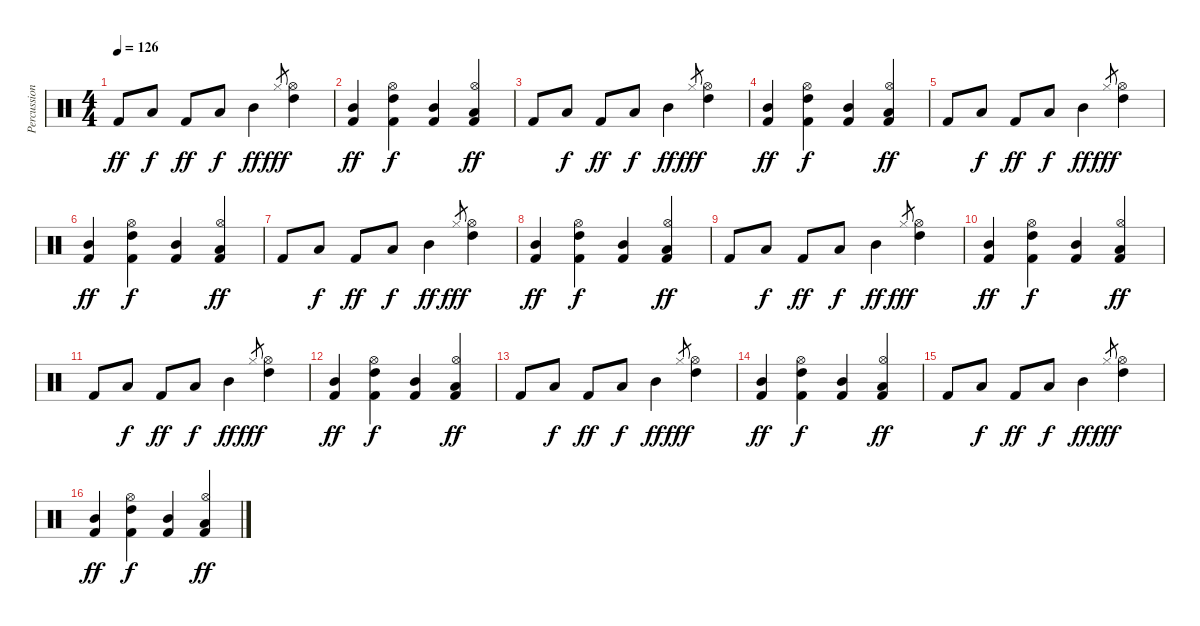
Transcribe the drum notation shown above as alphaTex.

\track ("Percussion" "Percussion") {instrument percussion}
\staff {score}
\articulation defaults
\ts (4 4)
\tempo 126
\clef neutral
\ks c "Kick (hit) 2".8{dy ff} "Low Floor Tom (hit)".8{dy f} "Kick (hit) 2".8{dy ff} "Low Floor Tom (hit)".8{dy f} "Mid Tom (hit)".4{dy ff} "Hi-Hat (closed)".8{gr dy fff}
("High Tom (hit)" "Hi-Hat (open)").4 |
("Kick (hit) 2" "Mid Tom (hit)").4{dy ff balance 7} ("Kick (hit) 2" "High Tom (hit)" "Hi-Hat (open)").4{dy f} ("Kick (hit) 2" "Mid Tom (hit)").4 ("Kick (hit) 2" "Low Tom (hit)" "Hi-Hat (open)").4{dy ff} |
"Kick (hit) 2".8{balance 10} "Low Floor Tom (hit)".8{dy f} "Kick (hit) 2".8{dy ff} "Low Floor Tom (hit)".8{dy f} "Mid Tom (hit)".4{dy ff} "Hi-Hat (closed)".8{gr dy fff} ("High Tom (hit)" "Hi-Hat (open)").4 |
("Kick (hit) 2" "Mid Tom (hit)").4{dy ff} ("Kick (hit) 2" "High Tom (hit)" "Hi-Hat (open)").4{dy f} ("Kick (hit) 2" "Mid Tom (hit)").4 ("Kick (hit) 2" "Low Tom (hit)" "Hi-Hat (open)").4{dy ff} |
"Kick (hit) 2".8 "Low Floor Tom (hit)".8{dy f} "Kick (hit) 2".8{dy ff} "Low Floor Tom (hit)".8{dy f} "Mid Tom (hit)".4{dy ff} "Hi-Hat (closed)".8{gr dy fff} ("High Tom (hit)" "Hi-Hat (open)").4 |
("Kick (hit) 2" "Mid Tom (hit)").4{dy ff} ("Kick (hit) 2" "High Tom (hit)" "Hi-Hat (open)").4{dy f} ("Kick (hit) 2" "Mid Tom (hit)").4 ("Kick (hit) 2" "Low Tom (hit)" "Hi-Hat (open)").4{dy ff} |
"Kick (hit) 2".8 "Low Floor Tom (hit)".8{dy f} "Kick (hit) 2".8{dy ff} "Low Floor Tom (hit)".8{dy f} "Mid Tom (hit)".4{dy ff} "Hi-Hat (closed)".8{gr dy fff} ("High Tom (hit)" "Hi-Hat (open)").4 |
("Kick (hit) 2" "Mid Tom (hit)").4{dy ff} ("Kick (hit) 2" "High Tom (hit)" "Hi-Hat (open)").4{dy f} ("Kick (hit) 2" "Mid Tom (hit)").4 ("Kick (hit) 2" "Low Tom (hit)" "Hi-Hat (open)").4{dy ff} |
"Kick (hit) 2".8 "Low Floor Tom (hit)".8{dy f} "Kick (hit) 2".8{dy ff} "Low Floor Tom (hit)".8{dy f} "Mid Tom (hit)".4{dy ff} "Hi-Hat (closed)".8{gr dy fff} ("High Tom (hit)" "Hi-Hat (open)").4 |
("Kick (hit) 2" "Mid Tom (hit)").4{dy ff} ("Kick (hit) 2" "High Tom (hit)" "Hi-Hat (open)").4{dy f} ("Kick (hit) 2" "Mid Tom (hit)").4 ("Kick (hit) 2" "Low Tom (hit)" "Hi-Hat (open)").4{dy ff} |
"Kick (hit) 2".8{balance 10} "Low Floor Tom (hit)".8{dy f} "Kick (hit) 2".8{dy ff} "Low Floor Tom (hit)".8{dy f} "Mid Tom (hit)".4{dy ff} "Hi-Hat (closed)".8{gr dy fff} ("High Tom (hit)" "Hi-Hat (open)").4 |
("Kick (hit) 2" "Mid Tom (hit)").4{dy ff} ("Kick (hit) 2" "High Tom (hit)" "Hi-Hat (open)").4{dy f} ("Kick (hit) 2" "Mid Tom (hit)").4 ("Kick (hit) 2" "Low Tom (hit)" "Hi-Hat (open)").4{dy ff} |
"Kick (hit) 2".8 "Low Floor Tom (hit)".8{dy f} "Kick (hit) 2".8{dy ff} "Low Floor Tom (hit)".8{dy f} "Mid Tom (hit)".4{dy ff} "Hi-Hat (closed)".8{gr dy fff} ("High Tom (hit)" "Hi-Hat (open)").4 |
("Kick (hit) 2" "Mid Tom (hit)").4{dy ff} ("Kick (hit) 2" "High Tom (hit)" "Hi-Hat (open)").4{dy f} ("Kick (hit) 2" "Mid Tom (hit)").4 ("Kick (hit) 2" "Low Tom (hit)" "Hi-Hat (open)").4{dy ff} |
"Kick (hit) 2".8 "Low Floor Tom (hit)".8{dy f} "Kick (hit) 2".8{dy ff} "Low Floor Tom (hit)".8{dy f} "Mid Tom (hit)".4{dy ff} "Hi-Hat (closed)".8{gr dy fff} ("High Tom (hit)" "Hi-Hat (open)").4 |
("Kick (hit) 2" "Mid Tom (hit)").4{dy ff} ("Kick (hit) 2" "High Tom (hit)" "Hi-Hat (open)").4{dy f} ("Kick (hit) 2" "Mid Tom (hit)").4 ("Kick (hit) 2" "Low Tom (hit)" "Hi-Hat (open)").4{dy ff}
